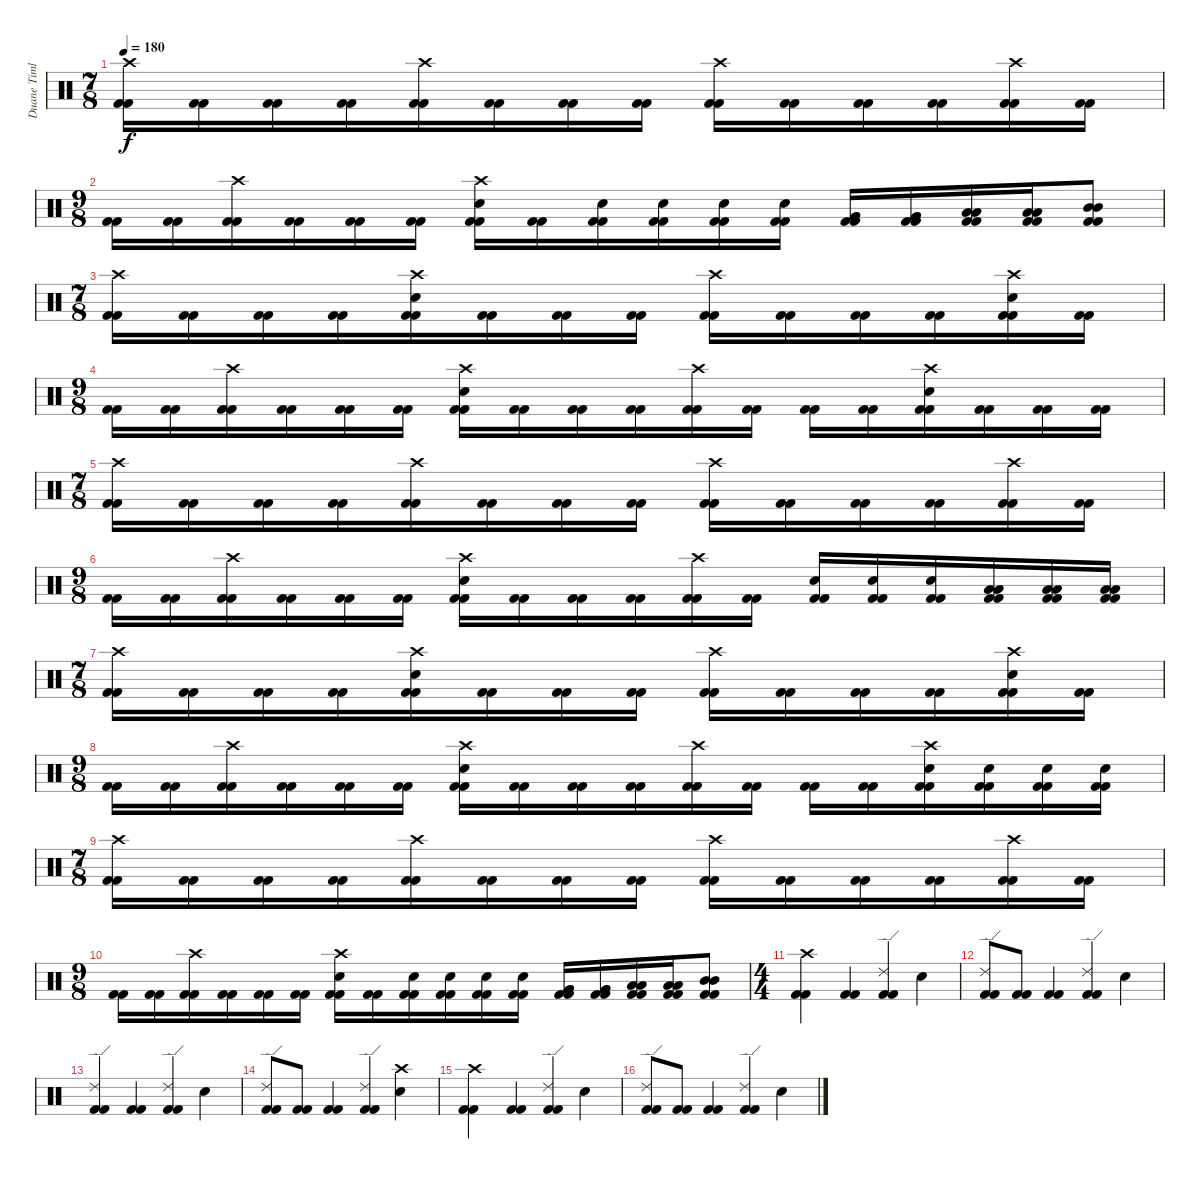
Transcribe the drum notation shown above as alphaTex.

\track ("Duane Timlin" "Duane Timl") {instrument percussion}
\staff {score}
\articulation defaults
\ts (7 8)
\tempo 180
\clef neutral
\ks c
("Crash high (hit)" "Kick (hit) 2" "Kick (hit) 2").16{dy f} ("Kick (hit) 2" "Kick (hit) 2").16 ("Kick (hit) 2" "Kick (hit) 2").16 ("Kick (hit) 2" "Kick (hit) 2").16 ("Crash high (hit)" "Kick (hit) 2" "Kick (hit) 2").16 ("Kick (hit) 2" "Kick (hit) 2").16 ("Kick (hit) 2" "Kick (hit) 2").16 ("Kick (hit) 2" "Kick (hit) 2").16 ("Crash high (hit)" "Kick (hit) 2" "Kick (hit) 2").16 ("Kick (hit) 2" "Kick (hit) 2").16 ("Kick (hit) 2" "Kick (hit) 2").16 ("Kick (hit) 2" "Kick (hit) 2").16 ("Crash high (hit)" "Kick (hit) 2" "Kick (hit) 2").16 ("Kick (hit) 2" "Kick (hit) 2").16 |
\ts (9 8)
("Kick (hit) 2" "Kick (hit) 2").16 ("Kick (hit) 2" "Kick (hit) 2").16 ("Crash high (hit)" "Kick (hit) 2" "Kick (hit) 2").16 ("Kick (hit) 2" "Kick (hit) 2").16 ("Kick (hit) 2" "Kick (hit) 2").16 ("Kick (hit) 2" "Kick (hit) 2").16 ("Crash high (hit)" "Electric Snare (hit)" "Kick (hit) 2" "Kick (hit) 2").16 ("Kick (hit) 2" "Kick (hit) 2").16 ("Electric Snare (hit)" "Kick (hit) 2" "Kick (hit) 2").16 ("Electric Snare (hit)" "Kick (hit) 2" "Kick (hit) 2").16 ("Electric Snare (hit)" "Kick (hit) 2" "Kick (hit) 2").16 ("Electric Snare (hit)" "Kick (hit) 2" "Kick (hit) 2").16 ("Very Low Tom (hit)" "Very Low Tom (hit)" "Kick (hit) 2" "Kick (hit) 2").16 ("Very Low Tom (hit)" "Very Low Tom (hit)" "Kick (hit) 2" "Kick (hit) 2").16 ("Low Tom (hit)" "Low Tom (hit)" "Kick (hit) 2" "Kick (hit) 2").16 ("Low Tom (hit)" "Low Tom (hit)" "Kick (hit) 2" "Kick (hit) 2").16 ("Mid Tom (hit)" "Mid Tom (hit)" "Kick (hit) 2" "Kick (hit) 2").8 |
\ts (7 8)
("Crash high (hit)" "Kick (hit) 2" "Kick (hit) 2").16 ("Kick (hit) 2" "Kick (hit) 2").16 ("Kick (hit) 2" "Kick (hit) 2").16 ("Kick (hit) 2" "Kick (hit) 2").16 ("Crash high (hit)" "Electric Snare (hit)" "Kick (hit) 2" "Kick (hit) 2").16 ("Kick (hit) 2" "Kick (hit) 2").16 ("Kick (hit) 2" "Kick (hit) 2").16 ("Kick (hit) 2" "Kick (hit) 2").16 ("Crash high (hit)" "Kick (hit) 2" "Kick (hit) 2").16 ("Kick (hit) 2" "Kick (hit) 2").16 ("Kick (hit) 2" "Kick (hit) 2").16 ("Kick (hit) 2" "Kick (hit) 2").16 ("Crash high (hit)" "Electric Snare (hit)" "Kick (hit) 2" "Kick (hit) 2").16 ("Kick (hit) 2" "Kick (hit) 2").16 |
\ts (9 8)
("Kick (hit) 2" "Kick (hit) 2").16 ("Kick (hit) 2" "Kick (hit) 2").16 ("Crash high (hit)" "Kick (hit) 2" "Kick (hit) 2").16 ("Kick (hit) 2" "Kick (hit) 2").16 ("Kick (hit) 2" "Kick (hit) 2").16 ("Kick (hit) 2" "Kick (hit) 2").16 ("Crash high (hit)" "Electric Snare (hit)" "Kick (hit) 2" "Kick (hit) 2").16 ("Kick (hit) 2" "Kick (hit) 2").16 ("Kick (hit) 2" "Kick (hit) 2").16 ("Kick (hit) 2" "Kick (hit) 2").16 ("Crash high (hit)" "Kick (hit) 2" "Kick (hit) 2").16 ("Kick (hit) 2" "Kick (hit) 2").16 ("Kick (hit) 2" "Kick (hit) 2").16 ("Kick (hit) 2" "Kick (hit) 2").16 ("Crash high (hit)" "Electric Snare (hit)" "Kick (hit) 2" "Kick (hit) 2").16 ("Kick (hit) 2" "Kick (hit) 2").16 ("Kick (hit) 2" "Kick (hit) 2").16 ("Kick (hit) 2" "Kick (hit) 2").16 |
\ts (7 8)
("Crash high (hit)" "Kick (hit) 2" "Kick (hit) 2").16 ("Kick (hit) 2" "Kick (hit) 2").16 ("Kick (hit) 2" "Kick (hit) 2").16 ("Kick (hit) 2" "Kick (hit) 2").16 ("Crash high (hit)" "Kick (hit) 2" "Kick (hit) 2").16 ("Kick (hit) 2" "Kick (hit) 2").16 ("Kick (hit) 2" "Kick (hit) 2").16 ("Kick (hit) 2" "Kick (hit) 2").16 ("Crash high (hit)" "Kick (hit) 2" "Kick (hit) 2").16 ("Kick (hit) 2" "Kick (hit) 2").16 ("Kick (hit) 2" "Kick (hit) 2").16 ("Kick (hit) 2" "Kick (hit) 2").16 ("Crash high (hit)" "Kick (hit) 2" "Kick (hit) 2").16 ("Kick (hit) 2" "Kick (hit) 2").16 |
\ts (9 8)
("Kick (hit) 2" "Kick (hit) 2").16 ("Kick (hit) 2" "Kick (hit) 2").16 ("Crash high (hit)" "Kick (hit) 2" "Kick (hit) 2").16 ("Kick (hit) 2" "Kick (hit) 2").16 ("Kick (hit) 2" "Kick (hit) 2").16 ("Kick (hit) 2" "Kick (hit) 2").16 ("Crash high (hit)" "Electric Snare (hit)" "Kick (hit) 2" "Kick (hit) 2").16 ("Kick (hit) 2" "Kick (hit) 2").16 ("Kick (hit) 2" "Kick (hit) 2").16 ("Kick (hit) 2" "Kick (hit) 2").16 ("Crash high (hit)" "Kick (hit) 2" "Kick (hit) 2").16 ("Kick (hit) 2" "Kick (hit) 2").16 ("Electric Snare (hit)" "Kick (hit) 2" "Kick (hit) 2").16 ("Electric Snare (hit)" "Kick (hit) 2" "Kick (hit) 2").16 ("Electric Snare (hit)" "Kick (hit) 2" "Kick (hit) 2").16 ("Low Tom (hit)" "Low Tom (hit)" "Kick (hit) 2" "Kick (hit) 2").16 ("Low Tom (hit)" "Low Tom (hit)" "Kick (hit) 2" "Kick (hit) 2").16 ("Low Tom (hit)" "Low Tom (hit)" "Kick (hit) 2" "Kick (hit) 2").16 |
\ts (7 8)
("Crash high (hit)" "Kick (hit) 2" "Kick (hit) 2").16 ("Kick (hit) 2" "Kick (hit) 2").16 ("Kick (hit) 2" "Kick (hit) 2").16 ("Kick (hit) 2" "Kick (hit) 2").16 ("Crash high (hit)" "Electric Snare (hit)" "Kick (hit) 2" "Kick (hit) 2").16 ("Kick (hit) 2" "Kick (hit) 2").16 ("Kick (hit) 2" "Kick (hit) 2").16 ("Kick (hit) 2" "Kick (hit) 2").16 ("Crash high (hit)" "Kick (hit) 2" "Kick (hit) 2").16 ("Kick (hit) 2" "Kick (hit) 2").16 ("Kick (hit) 2" "Kick (hit) 2").16 ("Kick (hit) 2" "Kick (hit) 2").16 ("Crash high (hit)" "Electric Snare (hit)" "Kick (hit) 2" "Kick (hit) 2").16 ("Kick (hit) 2" "Kick (hit) 2").16 |
\ts (9 8)
("Kick (hit) 2" "Kick (hit) 2").16 ("Kick (hit) 2" "Kick (hit) 2").16 ("Crash high (hit)" "Kick (hit) 2" "Kick (hit) 2").16 ("Kick (hit) 2" "Kick (hit) 2").16 ("Kick (hit) 2" "Kick (hit) 2").16 ("Kick (hit) 2" "Kick (hit) 2").16 ("Crash high (hit)" "Electric Snare (hit)" "Kick (hit) 2" "Kick (hit) 2").16 ("Kick (hit) 2" "Kick (hit) 2").16 ("Kick (hit) 2" "Kick (hit) 2").16 ("Kick (hit) 2" "Kick (hit) 2").16 ("Crash high (hit)" "Kick (hit) 2" "Kick (hit) 2").16 ("Kick (hit) 2" "Kick (hit) 2").16 ("Kick (hit) 2" "Kick (hit) 2").16 ("Kick (hit) 2" "Kick (hit) 2").16 ("Crash high (hit)" "Electric Snare (hit)" "Kick (hit) 2" "Kick (hit) 2").16 ("Electric Snare (hit)" "Kick (hit) 2" "Kick (hit) 2").16 ("Electric Snare (hit)" "Kick (hit) 2" "Kick (hit) 2").16 ("Electric Snare (hit)" "Kick (hit) 2" "Kick (hit) 2").16 |
\ts (7 8)
("Crash high (hit)" "Kick (hit) 2" "Kick (hit) 2").16 ("Kick (hit) 2" "Kick (hit) 2").16 ("Kick (hit) 2" "Kick (hit) 2").16 ("Kick (hit) 2" "Kick (hit) 2").16 ("Crash high (hit)" "Kick (hit) 2" "Kick (hit) 2").16 ("Kick (hit) 2" "Kick (hit) 2").16 ("Kick (hit) 2" "Kick (hit) 2").16 ("Kick (hit) 2" "Kick (hit) 2").16 ("Crash high (hit)" "Kick (hit) 2" "Kick (hit) 2").16 ("Kick (hit) 2" "Kick (hit) 2").16 ("Kick (hit) 2" "Kick (hit) 2").16 ("Kick (hit) 2" "Kick (hit) 2").16 ("Crash high (hit)" "Kick (hit) 2" "Kick (hit) 2").16 ("Kick (hit) 2" "Kick (hit) 2").16 |
\ts (9 8)
("Kick (hit) 2" "Kick (hit) 2").16 ("Kick (hit) 2" "Kick (hit) 2").16 ("Crash high (hit)" "Kick (hit) 2" "Kick (hit) 2").16 ("Kick (hit) 2" "Kick (hit) 2").16 ("Kick (hit) 2" "Kick (hit) 2").16 ("Kick (hit) 2" "Kick (hit) 2").16 ("Crash high (hit)" "Electric Snare (hit)" "Kick (hit) 2" "Kick (hit) 2").16 ("Kick (hit) 2" "Kick (hit) 2").16 ("Electric Snare (hit)" "Kick (hit) 2" "Kick (hit) 2").16 ("Electric Snare (hit)" "Kick (hit) 2" "Kick (hit) 2").16 ("Electric Snare (hit)" "Kick (hit) 2" "Kick (hit) 2").16 ("Electric Snare (hit)" "Kick (hit) 2" "Kick (hit) 2").16 ("Very Low Tom (hit)" "Very Low Tom (hit)" "Kick (hit) 2" "Kick (hit) 2").16 ("Very Low Tom (hit)" "Very Low Tom (hit)" "Kick (hit) 2" "Kick (hit) 2").16 ("Low Tom (hit)" "Low Tom (hit)" "Kick (hit) 2" "Kick (hit) 2").16 ("Low Tom (hit)" "Low Tom (hit)" "Kick (hit) 2" "Kick (hit) 2").16 ("Mid Tom (hit)" "Mid Tom (hit)" "Kick (hit) 2" "Kick (hit) 2").8 |
\ts (4 4)
("Crash high (hit)" "Kick (hit) 2" "Kick (hit) 2").4 ("Kick (hit) 2" "Kick (hit) 2").4 ("Ride (edge) 2" "Kick (hit) 2" "Kick (hit) 2").4 "Electric Snare (hit)".4 |
("Ride (edge) 2" "Kick (hit) 2" "Kick (hit) 2").8 ("Kick (hit) 2" "Kick (hit) 2").8 ("Kick (hit) 2" "Kick (hit) 2").4 ("Ride (edge) 2" "Kick (hit) 2" "Kick (hit) 2").4 "Electric Snare (hit)".4 |
("Ride (edge) 2" "Kick (hit) 2" "Kick (hit) 2").4 ("Kick (hit) 2" "Kick (hit) 2").4 ("Ride (edge) 2" "Kick (hit) 2" "Kick (hit) 2").4 "Electric Snare (hit)".4 |
("Ride (edge) 2" "Kick (hit) 2" "Kick (hit) 2").8 ("Kick (hit) 2" "Kick (hit) 2").8 ("Kick (hit) 2" "Kick (hit) 2").4 ("Ride (edge) 2" "Kick (hit) 2" "Kick (hit) 2").4 ("Crash high (hit)" "Electric Snare (hit)").4 |
("Crash high (hit)" "Kick (hit) 2" "Kick (hit) 2").4 ("Kick (hit) 2" "Kick (hit) 2").4 ("Ride (edge) 2" "Kick (hit) 2" "Kick (hit) 2").4 "Electric Snare (hit)".4 |
("Ride (edge) 2" "Kick (hit) 2" "Kick (hit) 2").8 ("Kick (hit) 2" "Kick (hit) 2").8 ("Kick (hit) 2" "Kick (hit) 2").4 ("Ride (edge) 2" "Kick (hit) 2" "Kick (hit) 2").4 "Electric Snare (hit)".4
